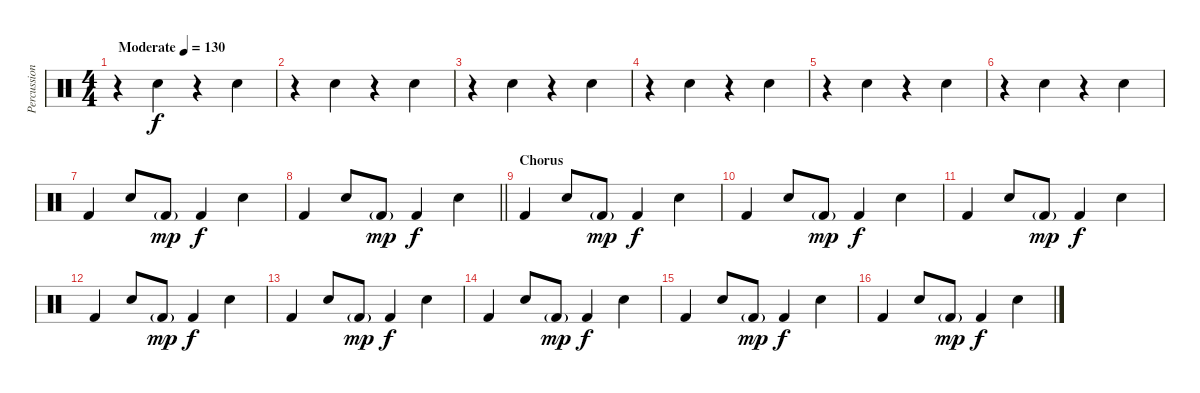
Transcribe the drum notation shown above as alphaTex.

\track ("Percussion" "Percussion") {instrument percussion}
\staff {score}
\articulation defaults
\ts (4 4)
\tempo (130 "Moderate")
\clef neutral
\ks c
r.4{dy f} "Snare (hit) 2".4 r.4 "Snare (hit) 2".4 |
r.4 "Snare (hit) 2".4 r.4 "Snare (hit) 2".4 |
r.4 "Snare (hit) 2".4 r.4 "Snare (hit) 2".4 |
r.4 "Snare (hit) 2".4 r.4 "Snare (hit) 2".4 |
r.4 "Snare (hit) 2".4 r.4 "Snare (hit) 2".4 |
r.4 "Snare (hit) 2".4 r.4 "Snare (hit) 2".4 |
"Kick (hit) 2".4 "Snare (hit) 2".8 "Kick (hit) 2"{g}.8{dy mp} "Kick (hit) 2".4{dy f} "Snare (hit) 2".4 |
\barLineRight lightlight "Kick (hit) 2".4 "Snare (hit) 2".8 "Kick (hit) 2"{g}.8{dy mp} "Kick (hit) 2".4{dy f} "Snare (hit) 2".4
|
\section ("" "Chorus")
"Kick (hit) 2".4 "Snare (hit) 2".8 "Kick (hit) 2"{g}.8{dy mp} "Kick (hit) 2".4{dy f} "Snare (hit) 2".4 |
"Kick (hit) 2".4 "Snare (hit) 2".8 "Kick (hit) 2"{g}.8{dy mp} "Kick (hit) 2".4{dy f} "Snare (hit) 2".4 |
"Kick (hit) 2".4 "Snare (hit) 2".8 "Kick (hit) 2"{g}.8{dy mp} "Kick (hit) 2".4{dy f} "Snare (hit) 2".4 |
"Kick (hit) 2".4 "Snare (hit) 2".8 "Kick (hit) 2"{g}.8{dy mp} "Kick (hit) 2".4{dy f} "Snare (hit) 2".4 |
"Kick (hit) 2".4 "Snare (hit) 2".8 "Kick (hit) 2"{g}.8{dy mp} "Kick (hit) 2".4{dy f} "Snare (hit) 2".4 |
"Kick (hit) 2".4 "Snare (hit) 2".8 "Kick (hit) 2"{g}.8{dy mp} "Kick (hit) 2".4{dy f} "Snare (hit) 2".4 |
"Kick (hit) 2".4 "Snare (hit) 2".8 "Kick (hit) 2"{g}.8{dy mp} "Kick (hit) 2".4{dy f} "Snare (hit) 2".4 |
"Kick (hit) 2".4 "Snare (hit) 2".8 "Kick (hit) 2"{g}.8{dy mp} "Kick (hit) 2".4{dy f} "Snare (hit) 2".4
